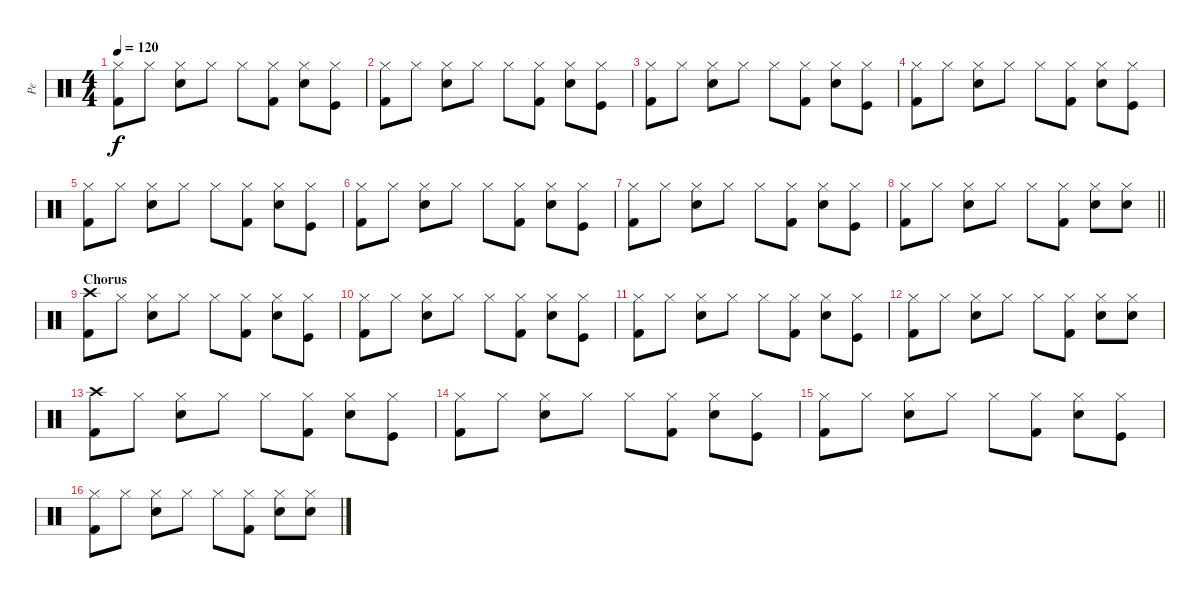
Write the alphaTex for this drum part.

\track ("Pe" "Pe") {instrument percussion}
\staff {score}
\articulation defaults
\ts (4 4)
\tempo 120
\clef neutral
\ks c
("Kick (hit) 2" "Hi-Hat (closed)").8{dy f} "Hi-Hat (closed)".8 ("Snare (hit) 2" "Hi-Hat (closed)").8 "Hi-Hat (closed)".8 "Hi-Hat (closed)".8 ("Kick (hit) 2" "Hi-Hat (closed)").8 ("Snare (hit) 2" "Hi-Hat (closed)").8 ("Kick (hit)" "Hi-Hat (closed)").8 |
("Kick (hit) 2" "Hi-Hat (closed)").8 "Hi-Hat (closed)".8 ("Snare (hit) 2" "Hi-Hat (closed)").8 "Hi-Hat (closed)".8 "Hi-Hat (closed)".8 ("Kick (hit) 2" "Hi-Hat (closed)").8 ("Snare (hit) 2" "Hi-Hat (closed)").8 ("Kick (hit)" "Hi-Hat (closed)").8 |
("Kick (hit) 2" "Hi-Hat (closed)").8 "Hi-Hat (closed)".8 ("Snare (hit) 2" "Hi-Hat (closed)").8 "Hi-Hat (closed)".8 "Hi-Hat (closed)".8 ("Kick (hit) 2" "Hi-Hat (closed)").8 ("Snare (hit) 2" "Hi-Hat (closed)").8 ("Kick (hit)" "Hi-Hat (closed)").8 |
("Kick (hit) 2" "Hi-Hat (closed)").8 "Hi-Hat (closed)".8 ("Snare (hit) 2" "Hi-Hat (closed)").8 "Hi-Hat (closed)".8 "Hi-Hat (closed)".8 ("Kick (hit) 2" "Hi-Hat (closed)").8 ("Snare (hit) 2" "Hi-Hat (closed)").8 ("Kick (hit)" "Hi-Hat (closed)").8 |
("Kick (hit) 2" "Hi-Hat (closed)").8 "Hi-Hat (closed)".8 ("Snare (hit) 2" "Hi-Hat (closed)").8 "Hi-Hat (closed)".8 "Hi-Hat (closed)".8 ("Kick (hit) 2" "Hi-Hat (closed)").8 ("Snare (hit) 2" "Hi-Hat (closed)").8 ("Kick (hit)" "Hi-Hat (closed)").8 |
("Kick (hit) 2" "Hi-Hat (closed)").8 "Hi-Hat (closed)".8 ("Snare (hit) 2" "Hi-Hat (closed)").8 "Hi-Hat (closed)".8 "Hi-Hat (closed)".8 ("Kick (hit) 2" "Hi-Hat (closed)").8 ("Snare (hit) 2" "Hi-Hat (closed)").8 ("Kick (hit)" "Hi-Hat (closed)").8 |
("Kick (hit) 2" "Hi-Hat (closed)").8 "Hi-Hat (closed)".8 ("Snare (hit) 2" "Hi-Hat (closed)").8 "Hi-Hat (closed)".8 "Hi-Hat (closed)".8 ("Kick (hit) 2" "Hi-Hat (closed)").8 ("Snare (hit) 2" "Hi-Hat (closed)").8 ("Kick (hit)" "Hi-Hat (closed)").8 |
\barLineRight lightlight
("Kick (hit) 2" "Hi-Hat (closed)").8 "Hi-Hat (closed)".8 ("Snare (hit) 2" "Hi-Hat (closed)").8 "Hi-Hat (closed)".8 "Hi-Hat (closed)".8 ("Kick (hit) 2" "Hi-Hat (closed)").8 ("Snare (hit) 2" "Hi-Hat (closed)").8 ("Snare (hit) 2" "Hi-Hat (closed)").8 |
\section ("" "Chorus")
("Kick (hit) 2" "Crash high (hit)").8 "Hi-Hat (closed)".8 ("Snare (hit) 2" "Hi-Hat (closed)").8 "Hi-Hat (closed)".8 "Hi-Hat (closed)".8 ("Kick (hit) 2" "Hi-Hat (closed)").8 ("Snare (hit) 2" "Hi-Hat (closed)").8 ("Kick (hit)" "Hi-Hat (closed)").8 |
("Kick (hit) 2" "Hi-Hat (closed)").8 "Hi-Hat (closed)".8 ("Snare (hit) 2" "Hi-Hat (closed)").8 "Hi-Hat (closed)".8 "Hi-Hat (closed)".8 ("Kick (hit) 2" "Hi-Hat (closed)").8 ("Snare (hit) 2" "Hi-Hat (closed)").8 ("Kick (hit)" "Hi-Hat (closed)").8 |
("Kick (hit) 2" "Hi-Hat (closed)").8 "Hi-Hat (closed)".8 ("Snare (hit) 2" "Hi-Hat (closed)").8 "Hi-Hat (closed)".8 "Hi-Hat (closed)".8 ("Kick (hit) 2" "Hi-Hat (closed)").8 ("Snare (hit) 2" "Hi-Hat (closed)").8 ("Kick (hit)" "Hi-Hat (closed)").8 |
("Kick (hit) 2" "Hi-Hat (closed)").8 "Hi-Hat (closed)".8 ("Snare (hit) 2" "Hi-Hat (closed)").8 "Hi-Hat (closed)".8 "Hi-Hat (closed)".8 ("Kick (hit) 2" "Hi-Hat (closed)").8 ("Snare (hit) 2" "Hi-Hat (closed)").8 ("Snare (hit) 2" "Hi-Hat (closed)").8 |
("Kick (hit) 2" "Crash high (hit)").8 "Hi-Hat (closed)".8 ("Snare (hit) 2" "Hi-Hat (closed)").8 "Hi-Hat (closed)".8 "Hi-Hat (closed)".8 ("Kick (hit) 2" "Hi-Hat (closed)").8 ("Snare (hit) 2" "Hi-Hat (closed)").8 ("Kick (hit)" "Hi-Hat (closed)").8 |
("Kick (hit) 2" "Hi-Hat (closed)").8 "Hi-Hat (closed)".8 ("Snare (hit) 2" "Hi-Hat (closed)").8 "Hi-Hat (closed)".8 "Hi-Hat (closed)".8 ("Kick (hit) 2" "Hi-Hat (closed)").8 ("Snare (hit) 2" "Hi-Hat (closed)").8 ("Kick (hit)" "Hi-Hat (closed)").8 |
("Kick (hit) 2" "Hi-Hat (closed)").8 "Hi-Hat (closed)".8 ("Snare (hit) 2" "Hi-Hat (closed)").8 "Hi-Hat (closed)".8 "Hi-Hat (closed)".8 ("Kick (hit) 2" "Hi-Hat (closed)").8 ("Snare (hit) 2" "Hi-Hat (closed)").8 ("Kick (hit)" "Hi-Hat (closed)").8 |
("Kick (hit) 2" "Hi-Hat (closed)").8 "Hi-Hat (closed)".8 ("Snare (hit) 2" "Hi-Hat (closed)").8 "Hi-Hat (closed)".8 "Hi-Hat (closed)".8 ("Kick (hit) 2" "Hi-Hat (closed)").8 ("Snare (hit) 2" "Hi-Hat (closed)").8 ("Snare (hit) 2" "Hi-Hat (closed)").8
